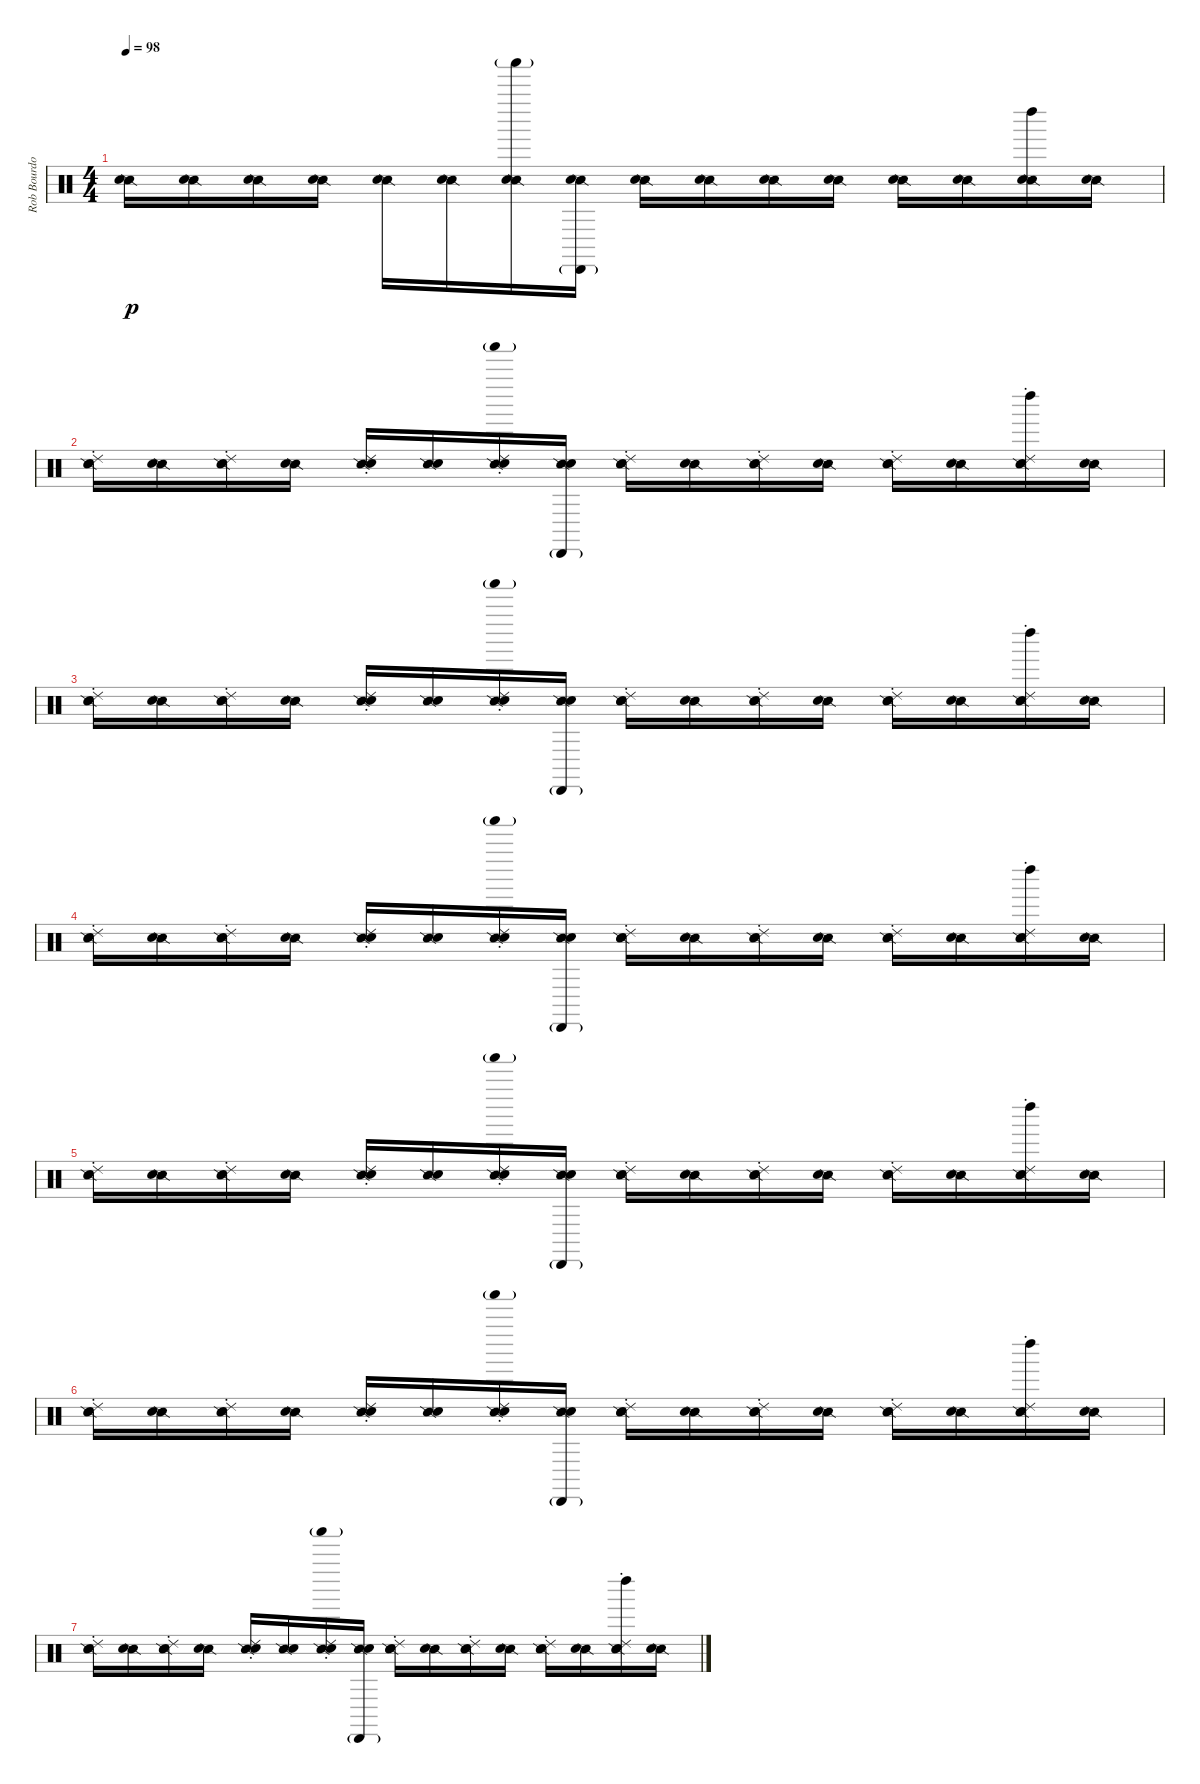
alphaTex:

\track ("Rob Bourdon (Drums)" "Rob Bourdo") {instrument percussion}
\staff {score}
\articulation defaults
\ts (4 4)
\tempo 98
\clef neutral
\ks c
("Snare (side stick) 2" "Hand Clap (hit)").16{dy p} ("Snare (side stick) 2" "Hand Clap (hit)").16 ("Snare (side stick) 2" "Hand Clap (hit)").16 ("Snare (side stick) 2" "Hand Clap (hit)").16 ("Snare (side stick) 2" "Hand Clap (hit)").16 ("Snare (side stick) 2" "Hand Clap (hit)").16 ("Shaker (hit)"{g} "Snare (side stick) 2" "Hand Clap (hit)").16 ("Cabasa (hit)"{g} "Snare (side stick) 2" "Hand Clap (hit)").16 ("Snare (side stick) 2" "Hand Clap (hit)").16 ("Snare (side stick) 2" "Hand Clap (hit)").16 ("Snare (side stick) 2" "Hand Clap (hit)").16 ("Snare (side stick) 2" "Hand Clap (hit)").16 ("Snare (side stick) 2" "Hand Clap (hit)").16 ("Snare (side stick) 2" "Hand Clap (hit)").16 ("Left Maraca (hit)" "Snare (side stick) 2" "Hand Clap (hit)").16 ("Snare (side stick) 2" "Hand Clap (hit)").16 |
("Ride (choke) 2" "Snare (side stick) 2" "Hand Clap (hit)").16 ("Snare (side stick) 2" "Hand Clap (hit)").16 ("Ride (choke) 2" "Snare (side stick) 2" "Hand Clap (hit)").16 ("Snare (side stick) 2" "Hand Clap (hit)").16 ("Ride (choke) 2" "Snare (side stick) 2" "Hand Clap (hit)").16 ("Snare (side stick) 2" "Hand Clap (hit)").16 ("Ride (choke) 2" "Shaker (hit)"{g} "Snare (side stick) 2" "Hand Clap (hit)").16 ("Cabasa (hit)"{g} "Snare (side stick) 2" "Hand Clap (hit)").16 ("Ride (choke) 2" "Snare (side stick) 2" "Hand Clap (hit)").16 ("Snare (side stick) 2" "Hand Clap (hit)").16 ("Ride (choke) 2" "Snare (side stick) 2" "Hand Clap (hit)").16 ("Snare (side stick) 2" "Hand Clap (hit)").16 ("Ride (choke) 2" "Snare (side stick) 2" "Hand Clap (hit)").16 ("Snare (side stick) 2" "Hand Clap (hit)").16 ("Ride (choke) 2" "Left Maraca (hit)" "Snare (side stick) 2" "Hand Clap (hit)").16 ("Snare (side stick) 2" "Hand Clap (hit)").16 |
("Ride (choke) 2" "Snare (side stick) 2" "Hand Clap (hit)").16 ("Snare (side stick) 2" "Hand Clap (hit)").16 ("Ride (choke) 2" "Snare (side stick) 2" "Hand Clap (hit)").16 ("Snare (side stick) 2" "Hand Clap (hit)").16 ("Ride (choke) 2" "Snare (side stick) 2" "Hand Clap (hit)").16 ("Snare (side stick) 2" "Hand Clap (hit)").16 ("Ride (choke) 2" "Shaker (hit)"{g} "Snare (side stick) 2" "Hand Clap (hit)").16 ("Cabasa (hit)"{g} "Snare (side stick) 2" "Hand Clap (hit)").16 ("Ride (choke) 2" "Snare (side stick) 2" "Hand Clap (hit)").16 ("Snare (side stick) 2" "Hand Clap (hit)").16 ("Ride (choke) 2" "Snare (side stick) 2" "Hand Clap (hit)").16 ("Snare (side stick) 2" "Hand Clap (hit)").16 ("Ride (choke) 2" "Snare (side stick) 2" "Hand Clap (hit)").16 ("Snare (side stick) 2" "Hand Clap (hit)").16 ("Ride (choke) 2" "Left Maraca (hit)" "Snare (side stick) 2" "Hand Clap (hit)").16 ("Snare (side stick) 2" "Hand Clap (hit)").16 |
("Ride (choke) 2" "Snare (side stick) 2" "Hand Clap (hit)").16 ("Snare (side stick) 2" "Hand Clap (hit)").16 ("Ride (choke) 2" "Snare (side stick) 2" "Hand Clap (hit)").16 ("Snare (side stick) 2" "Hand Clap (hit)").16 ("Ride (choke) 2" "Snare (side stick) 2" "Hand Clap (hit)").16 ("Snare (side stick) 2" "Hand Clap (hit)").16 ("Ride (choke) 2" "Shaker (hit)"{g} "Snare (side stick) 2" "Hand Clap (hit)").16 ("Cabasa (hit)"{g} "Snare (side stick) 2" "Hand Clap (hit)").16 ("Ride (choke) 2" "Snare (side stick) 2" "Hand Clap (hit)").16 ("Snare (side stick) 2" "Hand Clap (hit)").16 ("Ride (choke) 2" "Snare (side stick) 2" "Hand Clap (hit)").16 ("Snare (side stick) 2" "Hand Clap (hit)").16 ("Ride (choke) 2" "Snare (side stick) 2" "Hand Clap (hit)").16 ("Snare (side stick) 2" "Hand Clap (hit)").16 ("Ride (choke) 2" "Left Maraca (hit)" "Snare (side stick) 2" "Hand Clap (hit)").16 ("Snare (side stick) 2" "Hand Clap (hit)").16 |
("Ride (choke) 2" "Snare (side stick) 2" "Hand Clap (hit)").16 ("Snare (side stick) 2" "Hand Clap (hit)").16 ("Ride (choke) 2" "Snare (side stick) 2" "Hand Clap (hit)").16 ("Snare (side stick) 2" "Hand Clap (hit)").16 ("Ride (choke) 2" "Snare (side stick) 2" "Hand Clap (hit)").16 ("Snare (side stick) 2" "Hand Clap (hit)").16 ("Ride (choke) 2" "Shaker (hit)"{g} "Snare (side stick) 2" "Hand Clap (hit)").16 ("Cabasa (hit)"{g} "Snare (side stick) 2" "Hand Clap (hit)").16 ("Ride (choke) 2" "Snare (side stick) 2" "Hand Clap (hit)").16 ("Snare (side stick) 2" "Hand Clap (hit)").16 ("Ride (choke) 2" "Snare (side stick) 2" "Hand Clap (hit)").16 ("Snare (side stick) 2" "Hand Clap (hit)").16 ("Ride (choke) 2" "Snare (side stick) 2" "Hand Clap (hit)").16 ("Snare (side stick) 2" "Hand Clap (hit)").16 ("Ride (choke) 2" "Left Maraca (hit)" "Snare (side stick) 2" "Hand Clap (hit)").16 ("Snare (side stick) 2" "Hand Clap (hit)").16 |
("Ride (choke) 2" "Snare (side stick) 2" "Hand Clap (hit)").16 ("Snare (side stick) 2" "Hand Clap (hit)").16 ("Ride (choke) 2" "Snare (side stick) 2" "Hand Clap (hit)").16 ("Snare (side stick) 2" "Hand Clap (hit)").16 ("Ride (choke) 2" "Snare (side stick) 2" "Hand Clap (hit)").16 ("Snare (side stick) 2" "Hand Clap (hit)").16 ("Ride (choke) 2" "Shaker (hit)"{g} "Snare (side stick) 2" "Hand Clap (hit)").16 ("Cabasa (hit)"{g} "Snare (side stick) 2" "Hand Clap (hit)").16 ("Ride (choke) 2" "Snare (side stick) 2" "Hand Clap (hit)").16 ("Snare (side stick) 2" "Hand Clap (hit)").16 ("Ride (choke) 2" "Snare (side stick) 2" "Hand Clap (hit)").16 ("Snare (side stick) 2" "Hand Clap (hit)").16 ("Ride (choke) 2" "Snare (side stick) 2" "Hand Clap (hit)").16 ("Snare (side stick) 2" "Hand Clap (hit)").16 ("Ride (choke) 2" "Left Maraca (hit)" "Snare (side stick) 2" "Hand Clap (hit)").16 ("Snare (side stick) 2" "Hand Clap (hit)").16 |
("Ride (choke) 2" "Snare (side stick) 2" "Hand Clap (hit)").16 ("Snare (side stick) 2" "Hand Clap (hit)").16 ("Ride (choke) 2" "Snare (side stick) 2" "Hand Clap (hit)").16 ("Snare (side stick) 2" "Hand Clap (hit)").16 ("Ride (choke) 2" "Snare (side stick) 2" "Hand Clap (hit)").16 ("Snare (side stick) 2" "Hand Clap (hit)").16 ("Ride (choke) 2" "Shaker (hit)"{g} "Snare (side stick) 2" "Hand Clap (hit)").16 ("Cabasa (hit)"{g} "Snare (side stick) 2" "Hand Clap (hit)").16 ("Ride (choke) 2" "Snare (side stick) 2" "Hand Clap (hit)").16 ("Snare (side stick) 2" "Hand Clap (hit)").16 ("Ride (choke) 2" "Snare (side stick) 2" "Hand Clap (hit)").16 ("Snare (side stick) 2" "Hand Clap (hit)").16 ("Ride (choke) 2" "Snare (side stick) 2" "Hand Clap (hit)").16 ("Snare (side stick) 2" "Hand Clap (hit)").16 ("Ride (choke) 2" "Left Maraca (hit)" "Snare (side stick) 2" "Hand Clap (hit)").16 ("Snare (side stick) 2" "Hand Clap (hit)").16
